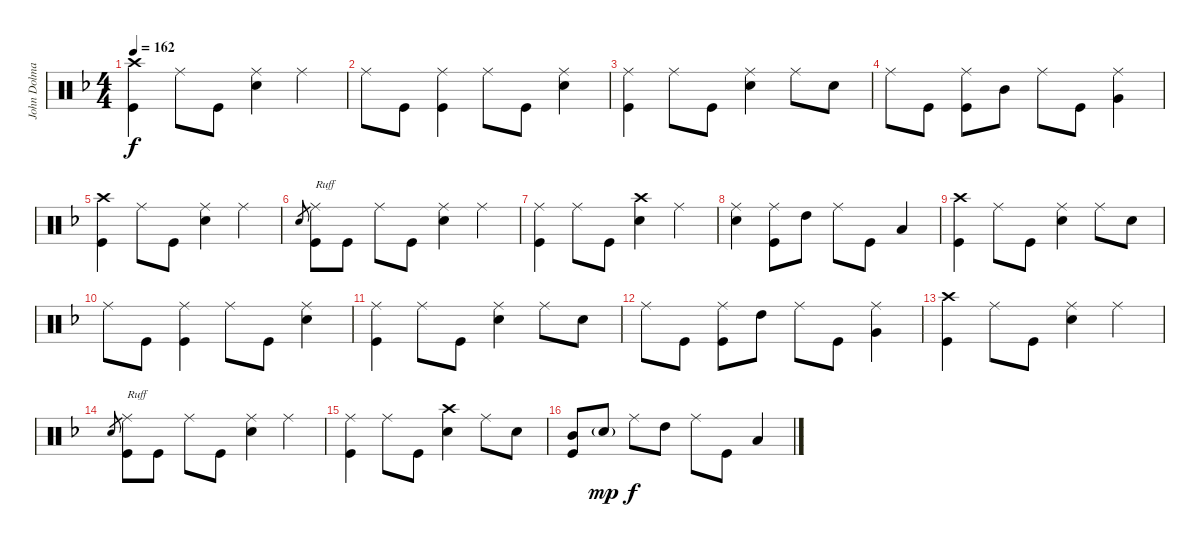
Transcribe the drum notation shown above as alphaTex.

\track ("John Dolmayan" "John Dolma") {instrument percussion}
\staff {score}
\articulation defaults
\ts (4 4)
\tempo 162
\clef neutral
\ks dminor
("Crash high (hit)" "Kick (hit)").4{dy f} "Ride (middle)".8 "Kick (hit)".8 ("Ride (middle)" "Snare (hit) 2").4 "Ride (middle)".4 |
"Ride (middle)".8 "Kick (hit)".8 ("Ride (middle)" "Kick (hit)").4 "Ride (middle)".8 "Kick (hit)".8 ("Ride (middle)" "Snare (hit) 2").4 |
("Ride (middle)" "Kick (hit)").4 "Ride (middle)".8 "Kick (hit)".8 ("Ride (middle)" "Snare (hit) 2").4 "Ride (middle)".8 "Snare (hit) 2".8 |
"Ride (middle)".8 "Kick (hit)".8 ("Ride (middle)" "Kick (hit)").8 "Mid Tom (hit)".8 "Ride (middle)".8 "Kick (hit)".8 ("Ride (middle)" "Very Low Tom (hit)").4 |
("Crash high (hit)" "Kick (hit)").4 "Ride (middle)".8 "Kick (hit)".8 ("Ride (middle)" "Snare (hit) 2").4 "Ride (middle)".4 |
"Snare (hit) 2".8{gr} ("Ride (middle)" "Kick (hit)").8{txt "Ruff"} "Kick (hit)".8 "Ride (middle)".8 "Kick (hit)".8 ("Ride (middle)" "Snare (hit) 2").4 "Ride (middle)".4 |
("Ride (middle)" "Kick (hit)").4 "Ride (middle)".8 "Kick (hit)".8 ("Crash high (hit)" "Snare (hit) 2").4 "Ride (middle)".4 |
("Ride (middle)" "Snare (hit) 2").4 ("Ride (middle)" "Kick (hit)").8 "High Tom (hit)".8 "Ride (middle)".8 "Kick (hit)".8 "Low Floor Tom (hit)".4 |
("Crash high (hit)" "Kick (hit)").4 "Ride (middle)".8 "Kick (hit)".8 ("Ride (middle)" "Snare (hit) 2").4 "Ride (middle)".8 "Snare (hit) 2".8 |
"Ride (middle)".8 "Kick (hit)".8 ("Kick (hit)" "Ride (middle)").4 "Ride (middle)".8 "Kick (hit)".8 ("Ride (middle)" "Snare (hit) 2").4 |
("Ride (middle)" "Kick (hit)").4 "Ride (middle)".8 "Kick (hit)".8 ("Ride (middle)" "Snare (hit) 2").4 "Ride (middle)".8 "Snare (hit) 2".8 |
"Ride (middle)".8 "Kick (hit)".8 ("Kick (hit)" "Ride (middle)").8 "High Tom (hit)".8 "Ride (middle)".8 "Kick (hit)".8 ("Very Low Tom (hit)" "Ride (middle)").4 |
("Crash high (hit)" "Kick (hit)").4 "Ride (middle)".8 "Kick (hit)".8 ("Ride (middle)" "Snare (hit) 2").4 "Ride (middle)".4 |
"Snare (hit) 2".8{gr} ("Ride (middle)" "Kick (hit)").8{txt "Ruff"} "Kick (hit)".8 "Ride (middle)".8 "Kick (hit)".8 ("Ride (middle)" "Snare (hit) 2").4 "Ride (middle)".4 |
("Ride (middle)" "Kick (hit)").4 "Ride (middle)".8 "Kick (hit)".8 ("Crash high (hit)" "Snare (hit) 2").4 "Ride (middle)".8 "Snare (hit) 2".8 |
("Mid Tom (hit)" "Kick (hit)").8 "Snare (hit) 2"{g}.8{dy mp} "Ride (middle)".8{dy f} "High Tom (hit)".8 "Ride (middle)".8 "Kick (hit)".8 "Low Floor Tom (hit)".4
